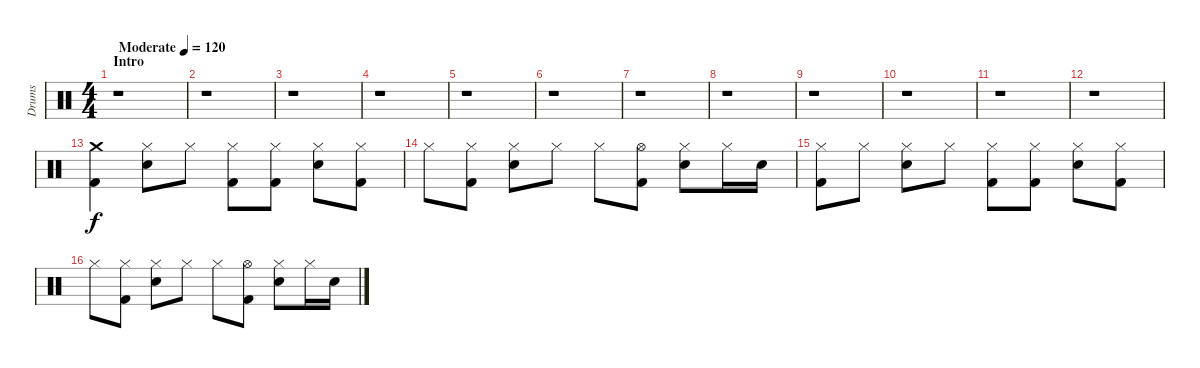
\track ("Drums" "Drums") {instrument percussion}
\staff {score}
\articulation defaults
\ts (4 4)
\section ("" "Intro")
\tempo (120 "Moderate")
\clef neutral
\ks c
r.1{dy f} |
r.1 |
r.1 |
r.1 |
r.1 |
r.1 |
r.1 |
r.1 |
r.1 |
r.1 |
r.1 |
r.1 |
("Crash medium (hit)" "Kick (hit) 2").4 ("Hi-Hat (closed)" "Snare (hit) 2").8 "Hi-Hat (closed)".8 ("Hi-Hat (closed)" "Kick (hit) 2").8 ("Hi-Hat (closed)" "Kick (hit) 2").8 ("Hi-Hat (closed)" "Snare (hit) 2").8 ("Hi-Hat (closed)" "Kick (hit) 2").8 |
"Hi-Hat (closed)".8 ("Hi-Hat (closed)" "Kick (hit) 2").8 ("Hi-Hat (closed)" "Snare (hit) 2").8 "Hi-Hat (closed)".8 "Hi-Hat (closed)".8 ("Hi-Hat (open)" "Kick (hit) 2").8 ("Hi-Hat (closed)" "Snare (hit) 2").8 "Hi-Hat (closed)".16 "Snare (hit) 2".16 |
("Hi-Hat (closed)" "Kick (hit) 2").8 "Hi-Hat (closed)".8 ("Hi-Hat (closed)" "Snare (hit) 2").8 "Hi-Hat (closed)".8 ("Hi-Hat (closed)" "Kick (hit) 2").8 ("Hi-Hat (closed)" "Kick (hit) 2").8 ("Hi-Hat (closed)" "Snare (hit) 2").8 ("Hi-Hat (closed)" "Kick (hit) 2").8 |
"Hi-Hat (closed)".8 ("Hi-Hat (closed)" "Kick (hit) 2").8 ("Hi-Hat (closed)" "Snare (hit) 2").8 "Hi-Hat (closed)".8 "Hi-Hat (closed)".8 ("Hi-Hat (open)" "Kick (hit) 2").8 ("Hi-Hat (closed)" "Snare (hit) 2").8 "Hi-Hat (closed)".16 "Snare (hit) 2".16
